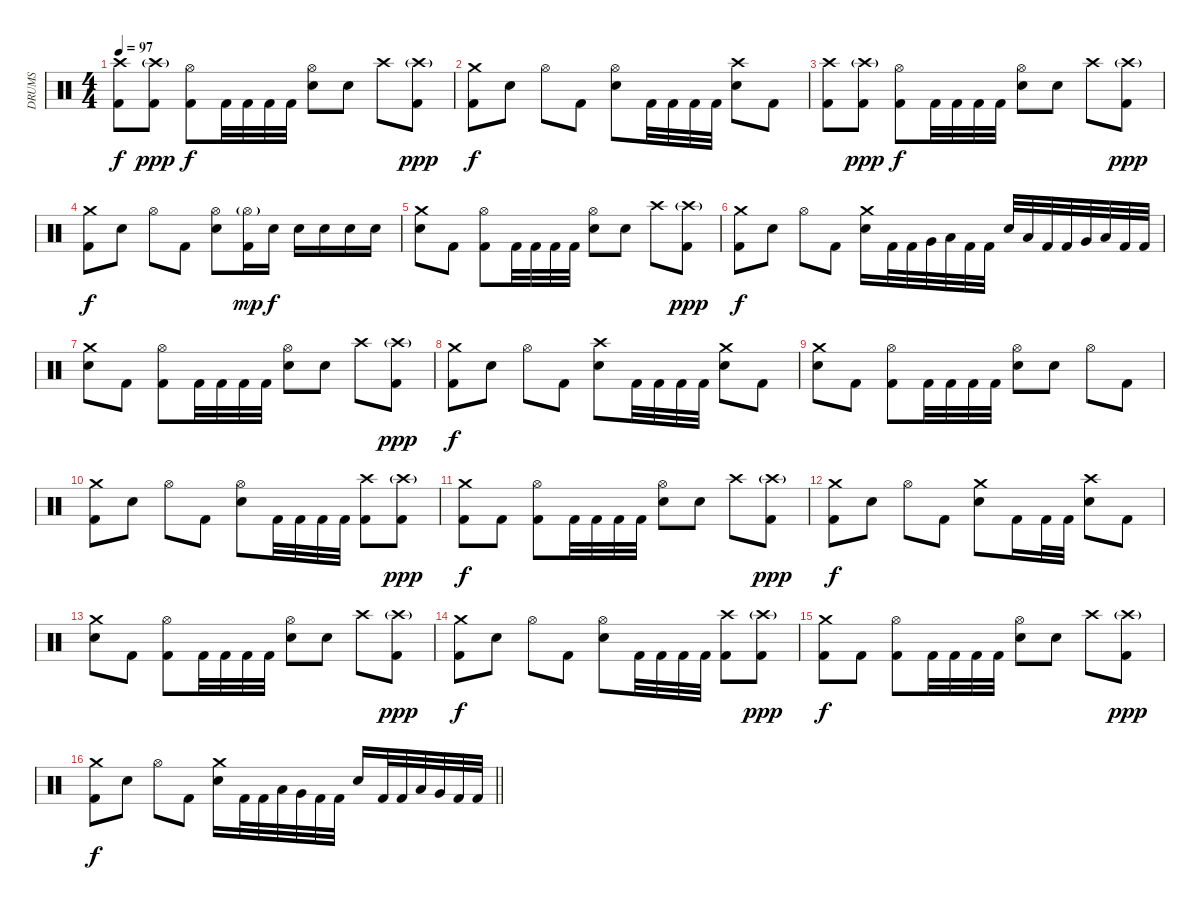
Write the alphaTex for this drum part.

\track ("DRUMS" "DRUMS") {instrument percussion}
\staff {score}
\articulation defaults
\ts (4 4)
\tempo 97
\clef neutral
\ks c
("Crash high (hit)" "Kick (hit) 2").8{dy f} ("Crash high (hit)"{g} "Kick (hit) 2").8{dy ppp} ("Hi-Hat (open)" "Kick (hit) 2").8{dy f} "Kick (hit) 2".32 "Kick (hit) 2".32 "Kick (hit) 2".32 "Kick (hit) 2".32 ("Hi-Hat (open)" "Snare (hit) 2").8 "Snare (hit) 2".8 "Crash high (hit)".8 ("Crash high (hit)"{g} "Kick (hit) 2").8{dy ppp} |
("Crash medium (hit)" "Kick (hit) 2").8{dy f} "Snare (hit) 2".8 "Hi-Hat (open)".8 "Kick (hit) 2".8 ("Hi-Hat (open)" "Snare (hit) 2").8 "Kick (hit) 2".32 "Kick (hit) 2".32 "Kick (hit) 2".32 "Kick (hit) 2".32 ("Crash high (hit)" "Snare (hit) 2").8 "Kick (hit) 2".8 |
("Crash high (hit)" "Kick (hit) 2").8 ("Crash high (hit)"{g} "Kick (hit) 2").8{dy ppp} ("Hi-Hat (open)" "Kick (hit) 2").8{dy f} "Kick (hit) 2".32 "Kick (hit) 2".32 "Kick (hit) 2".32 "Kick (hit) 2".32 ("Hi-Hat (open)" "Snare (hit) 2").8 "Snare (hit) 2".8 "Crash high (hit)".8 ("Crash high (hit)"{g} "Kick (hit) 2").8{dy ppp} |
("Crash medium (hit)" "Kick (hit) 2").8{dy f} "Snare (hit) 2".8 "Hi-Hat (open)".8 "Kick (hit) 2".8 ("Hi-Hat (open)" "Snare (hit) 2").8 ("Hi-Hat (open)"{g} "Kick (hit) 2").16{dy mp} "Snare (hit) 2".16{dy f} "Snare (hit) 2".16 "Snare (hit) 2".16 "Snare (hit) 2".16 "Snare (hit) 2".16 |
("Crash medium (hit)" "Snare (hit) 2").8 "Kick (hit) 2".8 ("Hi-Hat (open)" "Kick (hit) 2").8 "Kick (hit) 2".32 "Kick (hit) 2".32 "Kick (hit) 2".32 "Kick (hit) 2".32 ("Hi-Hat (open)" "Snare (hit) 2").8 "Snare (hit) 2".8 "Crash high (hit)".8 ("Crash high (hit)"{g} "Kick (hit) 2").8{dy ppp} |
("Crash medium (hit)" "Kick (hit) 2").8{dy f} "Snare (hit) 2".8 "Hi-Hat (open)".8 "Kick (hit) 2".8 ("Crash medium (hit)" "Snare (hit) 2").16 "Kick (hit) 2".32 "Kick (hit) 2".32 "Very Low Tom (hit)".32 "Low Floor Tom (hit)".32 "Kick (hit) 2".32 "Kick (hit) 2".32 "Snare (hit) 2".32 "Low Floor Tom (hit)".32 "Kick (hit) 2".32 "Kick (hit) 2".32 "Very Low Tom (hit)".32 "Low Floor Tom (hit)".32 "Kick (hit) 2".32 "Kick (hit) 2".32 |
("Crash medium (hit)" "Snare (hit) 2").8 "Kick (hit) 2".8 ("Hi-Hat (open)" "Kick (hit) 2").8 "Kick (hit) 2".32 "Kick (hit) 2".32 "Kick (hit) 2".32 "Kick (hit) 2".32 ("Hi-Hat (open)" "Snare (hit) 2").8 "Snare (hit) 2".8 "Crash high (hit)".8 ("Crash high (hit)"{g} "Kick (hit) 2").8{dy ppp} |
("Crash medium (hit)" "Kick (hit) 2").8{dy f} "Snare (hit) 2".8 "Hi-Hat (open)".8 "Kick (hit) 2".8 ("Crash high (hit)" "Snare (hit) 2").8 "Kick (hit) 2".32 "Kick (hit) 2".32 "Kick (hit) 2".32 "Kick (hit) 2".32 ("Crash medium (hit)" "Snare (hit) 2").8 "Kick (hit) 2".8 |
("Crash medium (hit)" "Snare (hit) 2").8 "Kick (hit) 2".8 ("Hi-Hat (open)" "Kick (hit) 2").8 "Kick (hit) 2".32 "Kick (hit) 2".32 "Kick (hit) 2".32 "Kick (hit) 2".32 ("Hi-Hat (open)" "Snare (hit) 2").8 "Snare (hit) 2".8 "Hi-Hat (open)".8 "Kick (hit) 2".8 |
("Crash medium (hit)" "Kick (hit) 2").8 "Snare (hit) 2".8 "Hi-Hat (open)".8 "Kick (hit) 2".8 ("Hi-Hat (open)" "Snare (hit) 2").8 "Kick (hit) 2".32 "Kick (hit) 2".32 "Kick (hit) 2".32 "Kick (hit) 2".32 ("Crash high (hit)" "Kick (hit) 2").8 ("Crash high (hit)"{g} "Kick (hit) 2").8{dy ppp} |
("Crash medium (hit)" "Kick (hit) 2").8{dy f} "Kick (hit) 2".8 ("Hi-Hat (open)" "Kick (hit) 2").8 "Kick (hit) 2".32 "Kick (hit) 2".32 "Kick (hit) 2".32 "Kick (hit) 2".32 ("Hi-Hat (open)" "Snare (hit) 2").8 "Snare (hit) 2".8 "Crash high (hit)".8 ("Crash high (hit)"{g} "Kick (hit) 2").8{dy ppp} |
("Crash medium (hit)" "Kick (hit) 2").8{dy f} "Snare (hit) 2".8 "Hi-Hat (open)".8 "Kick (hit) 2".8 ("Crash medium (hit)" "Snare (hit) 2").8 "Kick (hit) 2".16 "Kick (hit) 2".32 "Kick (hit) 2".32 ("Crash high (hit)" "Snare (hit) 2").8 "Kick (hit) 2".8 |
("Crash medium (hit)" "Snare (hit) 2").8 "Kick (hit) 2".8 ("Hi-Hat (open)" "Kick (hit) 2").8 "Kick (hit) 2".32 "Kick (hit) 2".32 "Kick (hit) 2".32 "Kick (hit) 2".32 ("Hi-Hat (open)" "Snare (hit) 2").8 "Snare (hit) 2".8 "Crash high (hit)".8 ("Crash high (hit)"{g} "Kick (hit) 2").8{dy ppp} |
("Crash medium (hit)" "Kick (hit) 2").8{dy f} "Snare (hit) 2".8 "Hi-Hat (open)".8 "Kick (hit) 2".8 ("Hi-Hat (open)" "Snare (hit) 2").8 "Kick (hit) 2".32 "Kick (hit) 2".32 "Kick (hit) 2".32 "Kick (hit) 2".32 ("Crash high (hit)" "Kick (hit) 2").8 ("Crash high (hit)"{g} "Kick (hit) 2").8{dy ppp} |
("Crash medium (hit)" "Kick (hit) 2").8{dy f} "Kick (hit) 2".8 ("Hi-Hat (open)" "Kick (hit) 2").8 "Kick (hit) 2".32 "Kick (hit) 2".32 "Kick (hit) 2".32 "Kick (hit) 2".32 ("Hi-Hat (open)" "Snare (hit) 2").8 "Snare (hit) 2".8 "Crash high (hit)".8 ("Crash high (hit)"{g} "Kick (hit) 2").8{dy ppp} |
\barLineRight lightlight
("Crash medium (hit)" "Kick (hit) 2").8{dy f} "Snare (hit) 2".8 "Hi-Hat (open)".8 "Kick (hit) 2".8 ("Crash medium (hit)" "Snare (hit) 2").16 "Kick (hit) 2".32 "Kick (hit) 2".32 "Low Tom (hit)".32 "Very Low Tom (hit)".32 "Kick (hit) 2".32 "Kick (hit) 2".32 "Snare (hit) 2".16 "Kick (hit) 2".32 "Kick (hit) 2".32 "Low Tom (hit)".32 "Very Low Tom (hit)".32 "Kick (hit) 2".32 "Kick (hit) 2".32
